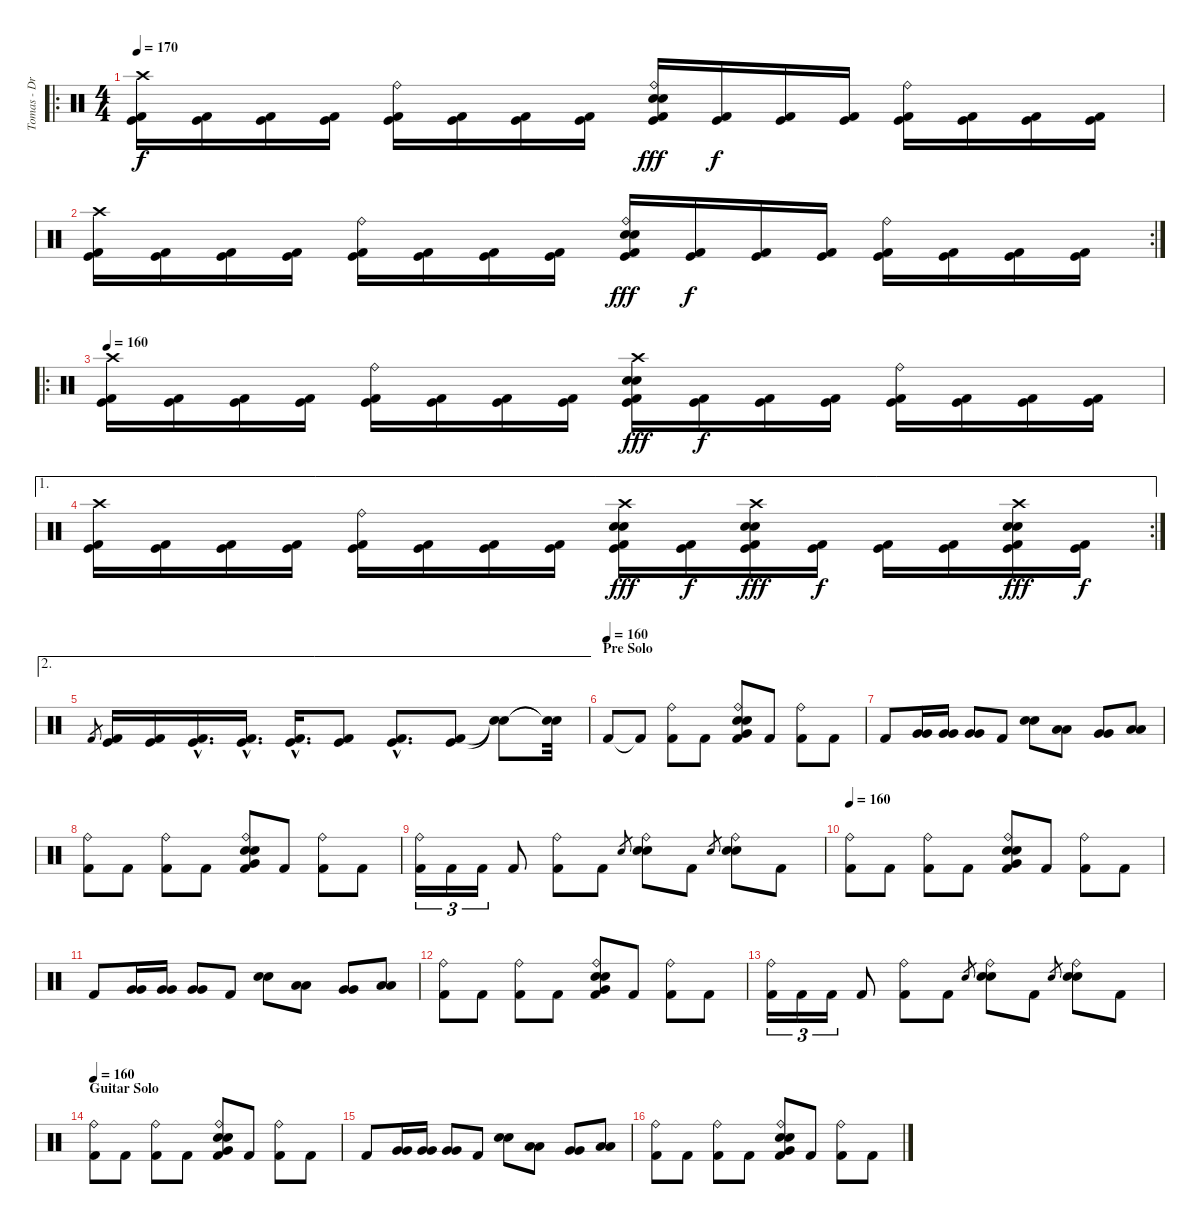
\track ("Tomas - Drums" "Tomas - Dr") {instrument percussion}
\staff {score}
\articulation defaults
\ro
\ts (4 4)
\tempo 170
\clef neutral
\ks c
("Crash high (hit)" "Kick (hit)" "Kick (hit) 2").16{dy f} ("Kick (hit)" "Kick (hit) 2").16 ("Kick (hit)" "Kick (hit) 2").16 ("Kick (hit)" "Kick (hit) 2").16 ("Ride (bell)" "Kick (hit)" "Kick (hit) 2").16 ("Kick (hit)" "Kick (hit) 2").16 ("Kick (hit)" "Kick (hit) 2").16 ("Kick (hit)" "Kick (hit) 2").16 ("Ride (bell)" "Electric Snare (hit)" "Electric Snare (hit)" "Kick (hit)" "Kick (hit) 2").16{dy fff} ("Kick (hit)" "Kick (hit) 2").16{dy f} ("Kick (hit)" "Kick (hit) 2").16 ("Kick (hit)" "Kick (hit) 2").16 ("Ride (bell)" "Kick (hit)" "Kick (hit) 2").16 ("Kick (hit)" "Kick (hit) 2").16 ("Kick (hit)" "Kick (hit) 2").16 ("Kick (hit)" "Kick (hit) 2").16 |
\rc 2
("Crash high (hit)" "Kick (hit)" "Kick (hit) 2").16 ("Kick (hit)" "Kick (hit) 2").16 ("Kick (hit)" "Kick (hit) 2").16 ("Kick (hit)" "Kick (hit) 2").16 ("Ride (bell)" "Kick (hit)" "Kick (hit) 2").16 ("Kick (hit)" "Kick (hit) 2").16 ("Kick (hit)" "Kick (hit) 2").16 ("Kick (hit)" "Kick (hit) 2").16 ("Ride (bell)" "Electric Snare (hit)" "Electric Snare (hit)" "Kick (hit)" "Kick (hit) 2").16{dy fff} ("Kick (hit)" "Kick (hit) 2").16{dy f} ("Kick (hit)" "Kick (hit) 2").16 ("Kick (hit)" "Kick (hit) 2").16 ("Ride (bell)" "Kick (hit)" "Kick (hit) 2").16 ("Kick (hit)" "Kick (hit) 2").16 ("Kick (hit)" "Kick (hit) 2").16 ("Kick (hit)" "Kick (hit) 2").16 |
\ro
\tempo 160
("Crash high (hit)" "Kick (hit)" "Kick (hit) 2").16 ("Kick (hit)" "Kick (hit) 2").16 ("Kick (hit)" "Kick (hit) 2").16 ("Kick (hit)" "Kick (hit) 2").16 ("Ride (bell)" "Kick (hit)" "Kick (hit) 2").16 ("Kick (hit)" "Kick (hit) 2").16 ("Kick (hit)" "Kick (hit) 2").16 ("Kick (hit)" "Kick (hit) 2").16 ("Crash high (hit)" "Electric Snare (hit)" "Electric Snare (hit)" "Kick (hit)" "Kick (hit) 2").16{dy fff} ("Kick (hit)" "Kick (hit) 2").16{dy f} ("Kick (hit)" "Kick (hit) 2").16 ("Kick (hit)" "Kick (hit) 2").16 ("Ride (bell)" "Kick (hit)" "Kick (hit) 2").16 ("Kick (hit)" "Kick (hit) 2").16 ("Kick (hit)" "Kick (hit) 2").16 ("Kick (hit)" "Kick (hit) 2").16 |
\ae 1
\rc 2
("Crash high (hit)" "Kick (hit)" "Kick (hit) 2").16 ("Kick (hit)" "Kick (hit) 2").16 ("Kick (hit)" "Kick (hit) 2").16 ("Kick (hit)" "Kick (hit) 2").16 ("Ride (bell)" "Kick (hit)" "Kick (hit) 2").16 ("Kick (hit)" "Kick (hit) 2").16 ("Kick (hit)" "Kick (hit) 2").16 ("Kick (hit)" "Kick (hit) 2").16 ("Crash high (hit)" "Electric Snare (hit)" "Electric Snare (hit)" "Kick (hit)" "Kick (hit) 2").16{dy fff} ("Kick (hit)" "Kick (hit) 2").16{dy f} ("Crash high (hit)" "Electric Snare (hit)" "Electric Snare (hit)" "Kick (hit)" "Kick (hit) 2").16{dy fff} ("Kick (hit)" "Kick (hit) 2").16{dy f} ("Kick (hit)" "Kick (hit) 2").16 ("Kick (hit)" "Kick (hit) 2").16 ("Crash high (hit)" "Electric Snare (hit)" "Electric Snare (hit)" "Kick (hit)" "Kick (hit) 2").16{dy fff} ("Kick (hit)" "Kick (hit) 2").16{dy f} |
\ae 2 "Kick (hit) 2".8{gr}
("Kick (hit)" "Kick (hit) 2").16 ("Kick (hit)" "Kick (hit) 2").16 ("Kick (hit)"{hac} "Kick (hit) 2"{hac}).16{d} ("Kick (hit)"{hac} "Kick (hit) 2"{hac}).16{d} ("Kick (hit)"{hac} "Kick (hit) 2"{hac}).16{d} ("Kick (hit)" "Kick (hit) 2").8 ("Kick (hit)"{hac} "Kick (hit) 2"{hac}).8{d} ("Kick (hit)" "Kick (hit) 2").8 ("Snare (hit)"{t} "Snare (hit)"{t}).8 ("Snare (hit)"{t} "Snare (hit)"{t}).32 |
\section ("" "Pre Solo")
\tempo (160)
"Kick (hit) 2".8 "Kick (hit) 2"{t}.8 ("Ride (bell)" "Kick (hit) 2").8 "Kick (hit) 2".8 ("Ride (bell)" "Very Low Tom (hit)" "Electric Snare (hit)" "Electric Snare (hit)" "Kick (hit) 2").8 "Kick (hit) 2".8 ("Ride (bell)" "Kick (hit) 2").8 "Kick (hit) 2".8 |
"Kick (hit) 2".8 ("Very Low Tom (hit)" "Very Low Tom (hit)").16 ("Very Low Tom (hit)" "Very Low Tom (hit)").16 ("Very Low Tom (hit)" "Very Low Tom (hit)").8 "Kick (hit) 2".8 ("Electric Snare (hit)" "Electric Snare (hit)").8 ("Low Tom (hit)" "Low Tom (hit)").8 ("Very Low Tom (hit)" "Very Low Tom (hit)").8 ("Low Floor Tom (hit)" "Low Floor Tom (hit)").8 |
("Ride (bell)" "Kick (hit) 2").8 "Kick (hit) 2".8 ("Ride (bell)" "Kick (hit) 2").8 "Kick (hit) 2".8 ("Ride (bell)" "Very Low Tom (hit)" "Electric Snare (hit)" "Electric Snare (hit)" "Kick (hit) 2").8 "Kick (hit) 2".8 ("Ride (bell)" "Kick (hit) 2").8 "Kick (hit) 2".8 |
("Ride (bell)" "Kick (hit) 2").16{tu (3 2)} "Kick (hit) 2".16{tu (3 2)} "Kick (hit) 2".16{tu (3 2)} "Kick (hit) 2".8 ("Ride (bell)" "Kick (hit) 2").8 "Kick (hit) 2".8 "Electric Snare (hit)".8{gr} ("Ride (bell)" "Electric Snare (hit)" "Electric Snare (hit)").8 "Kick (hit) 2".8 "Electric Snare (hit)".8{gr} ("Ride (bell)" "Electric Snare (hit)" "Electric Snare (hit)").8 "Kick (hit) 2".8 |
\tempo 160
("Ride (bell)" "Kick (hit) 2").8 "Kick (hit) 2".8 ("Ride (bell)" "Kick (hit) 2").8 "Kick (hit) 2".8 ("Ride (bell)" "Very Low Tom (hit)" "Electric Snare (hit)" "Electric Snare (hit)" "Kick (hit) 2").8 "Kick (hit) 2".8 ("Ride (bell)" "Kick (hit) 2").8 "Kick (hit) 2".8 |
"Kick (hit) 2".8 ("Very Low Tom (hit)" "Very Low Tom (hit)").16 ("Very Low Tom (hit)" "Very Low Tom (hit)").16 ("Very Low Tom (hit)" "Very Low Tom (hit)").8 "Kick (hit) 2".8 ("Electric Snare (hit)" "Electric Snare (hit)").8 ("Low Tom (hit)" "Low Tom (hit)").8 ("Very Low Tom (hit)" "Very Low Tom (hit)").8 ("Low Floor Tom (hit)" "Low Floor Tom (hit)").8 |
("Ride (bell)" "Kick (hit) 2").8 "Kick (hit) 2".8 ("Ride (bell)" "Kick (hit) 2").8 "Kick (hit) 2".8 ("Ride (bell)" "Very Low Tom (hit)" "Electric Snare (hit)" "Electric Snare (hit)" "Kick (hit) 2").8 "Kick (hit) 2".8 ("Ride (bell)" "Kick (hit) 2").8 "Kick (hit) 2".8 |
("Ride (bell)" "Kick (hit) 2").16{tu (3 2)} "Kick (hit) 2".16{tu (3 2)} "Kick (hit) 2".16{tu (3 2)} "Kick (hit) 2".8 ("Ride (bell)" "Kick (hit) 2").8 "Kick (hit) 2".8 "Electric Snare (hit)".8{gr} ("Ride (bell)" "Electric Snare (hit)" "Electric Snare (hit)").8 "Kick (hit) 2".8 "Electric Snare (hit)".8{gr} ("Ride (bell)" "Electric Snare (hit)" "Electric Snare (hit)").8 "Kick (hit) 2".8 |
\section ("" "Guitar Solo")
\tempo 160
("Ride (bell)" "Kick (hit) 2").8 "Kick (hit) 2".8 ("Ride (bell)" "Kick (hit) 2").8 "Kick (hit) 2".8 ("Ride (bell)" "Very Low Tom (hit)" "Electric Snare (hit)" "Electric Snare (hit)" "Kick (hit) 2").8 "Kick (hit) 2".8 ("Ride (bell)" "Kick (hit) 2").8 "Kick (hit) 2".8 |
"Kick (hit) 2".8 ("Very Low Tom (hit)" "Very Low Tom (hit)").16 ("Very Low Tom (hit)" "Very Low Tom (hit)").16 ("Very Low Tom (hit)" "Very Low Tom (hit)").8 "Kick (hit) 2".8 ("Electric Snare (hit)" "Electric Snare (hit)").8 ("Low Tom (hit)" "Low Tom (hit)").8 ("Very Low Tom (hit)" "Very Low Tom (hit)").8 ("Low Floor Tom (hit)" "Low Floor Tom (hit)").8 |
("Ride (bell)" "Kick (hit) 2").8 "Kick (hit) 2".8 ("Ride (bell)" "Kick (hit) 2").8 "Kick (hit) 2".8 ("Ride (bell)" "Very Low Tom (hit)" "Electric Snare (hit)" "Electric Snare (hit)" "Kick (hit) 2").8 "Kick (hit) 2".8 ("Ride (bell)" "Kick (hit) 2").8 "Kick (hit) 2".8
